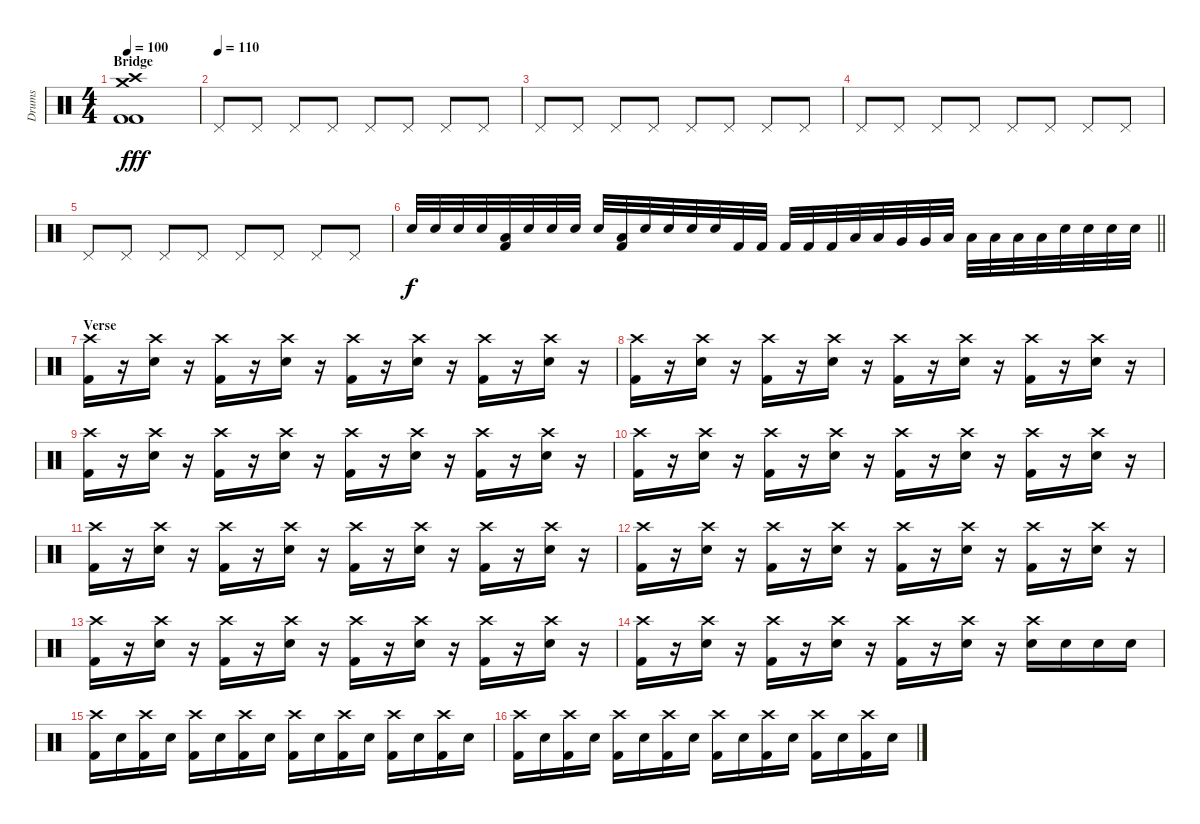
\track ("Drums" "Drums") {instrument percussion}
\staff {score}
\articulation defaults
\ts (4 4)
\section ("" "Bridge")
\tempo 100
\clef neutral
\ks c
("Crash high (hit)" "Crash medium (hit)" "Kick (hit) 2" "Kick (hit) 2").1{dy fff} |
\tempo (110)
"Pedal Hi-Hat (hit)".8 "Pedal Hi-Hat (hit)".8 "Pedal Hi-Hat (hit)".8 "Pedal Hi-Hat (hit)".8 "Pedal Hi-Hat (hit)".8 "Pedal Hi-Hat (hit)".8 "Pedal Hi-Hat (hit)".8 "Pedal Hi-Hat (hit)".8 |
"Pedal Hi-Hat (hit)".8 "Pedal Hi-Hat (hit)".8 "Pedal Hi-Hat (hit)".8 "Pedal Hi-Hat (hit)".8 "Pedal Hi-Hat (hit)".8 "Pedal Hi-Hat (hit)".8 "Pedal Hi-Hat (hit)".8 "Pedal Hi-Hat (hit)".8 |
"Pedal Hi-Hat (hit)".8 "Pedal Hi-Hat (hit)".8 "Pedal Hi-Hat (hit)".8 "Pedal Hi-Hat (hit)".8 "Pedal Hi-Hat (hit)".8 "Pedal Hi-Hat (hit)".8 "Pedal Hi-Hat (hit)".8 "Pedal Hi-Hat (hit)".8 |
"Pedal Hi-Hat (hit)".8 "Pedal Hi-Hat (hit)".8 "Pedal Hi-Hat (hit)".8 "Pedal Hi-Hat (hit)".8 "Pedal Hi-Hat (hit)".8 "Pedal Hi-Hat (hit)".8 "Pedal Hi-Hat (hit)".8 "Pedal Hi-Hat (hit)".8 |
\barLineRight lightlight "Electric Snare (hit)".32{dy f} "Electric Snare (hit)".32 "Electric Snare (hit)".32 "Electric Snare (hit)".32
("Low Tom (hit)" "Kick (hit) 2").32 "Electric Snare (hit)".32 "Electric Snare (hit)".32 "Electric Snare (hit)".32 "Electric Snare (hit)".32 ("Low Tom (hit)" "Kick (hit) 2").32 "Electric Snare (hit)".32 "Electric Snare (hit)".32 "Electric Snare (hit)".32 "Electric Snare (hit)".32 "Kick (hit) 2".32 "Kick (hit) 2".32 "Kick (hit) 2".32 "Kick (hit) 2".32 "Kick (hit) 2".32 "Low Tom (hit)".32 "Low Tom (hit)".32 "Very Low Tom (hit)".32 "Very Low Tom (hit)".32 "Low Floor Tom (hit)".32 "Low Floor Tom (hit)".32 "Low Floor Tom (hit)".32 "Low Floor Tom (hit)".32 "Low Floor Tom (hit)".32 "Electric Snare (hit)".32 "Electric Snare (hit)".32 "Electric Snare (hit)".32 "Electric Snare (hit)".32 |
\section ("" "Verse")
("Crash high (hit)" "Kick (hit) 2").16 r.16 ("Crash high (hit)" "Electric Snare (hit)").16 r.16 ("Crash high (hit)" "Kick (hit) 2").16 r.16 ("Crash high (hit)" "Electric Snare (hit)").16 r.16 ("Crash high (hit)" "Kick (hit) 2").16 r.16 ("Crash high (hit)" "Electric Snare (hit)").16 r.16 ("Crash high (hit)" "Kick (hit) 2").16 r.16 ("Crash high (hit)" "Electric Snare (hit)").16 r.16 |
("Crash high (hit)" "Kick (hit) 2").16 r.16 ("Crash high (hit)" "Electric Snare (hit)").16 r.16 ("Crash high (hit)" "Kick (hit) 2").16 r.16 ("Crash high (hit)" "Electric Snare (hit)").16 r.16 ("Crash high (hit)" "Kick (hit) 2").16 r.16 ("Crash high (hit)" "Electric Snare (hit)").16 r.16 ("Crash high (hit)" "Kick (hit) 2").16 r.16 ("Crash high (hit)" "Electric Snare (hit)").16 r.16 |
("Crash high (hit)" "Kick (hit) 2").16 r.16 ("Crash high (hit)" "Electric Snare (hit)").16 r.16 ("Crash high (hit)" "Kick (hit) 2").16 r.16 ("Crash high (hit)" "Electric Snare (hit)").16 r.16 ("Crash high (hit)" "Kick (hit) 2").16 r.16 ("Crash high (hit)" "Electric Snare (hit)").16 r.16 ("Crash high (hit)" "Kick (hit) 2").16 r.16 ("Crash high (hit)" "Electric Snare (hit)").16 r.16 |
("Crash high (hit)" "Kick (hit) 2").16 r.16 ("Crash high (hit)" "Electric Snare (hit)").16 r.16 ("Crash high (hit)" "Kick (hit) 2").16 r.16 ("Crash high (hit)" "Electric Snare (hit)").16 r.16 ("Crash high (hit)" "Kick (hit) 2").16 r.16 ("Crash high (hit)" "Electric Snare (hit)").16 r.16 ("Crash high (hit)" "Kick (hit) 2").16 r.16 ("Crash high (hit)" "Electric Snare (hit)").16 r.16 |
("Crash high (hit)" "Kick (hit) 2").16 r.16 ("Crash high (hit)" "Electric Snare (hit)").16 r.16 ("Crash high (hit)" "Kick (hit) 2").16 r.16 ("Crash high (hit)" "Electric Snare (hit)").16 r.16 ("Crash high (hit)" "Kick (hit) 2").16 r.16 ("Crash high (hit)" "Electric Snare (hit)").16 r.16 ("Crash high (hit)" "Kick (hit) 2").16 r.16 ("Crash high (hit)" "Electric Snare (hit)").16 r.16 |
("Crash high (hit)" "Kick (hit) 2").16 r.16 ("Crash high (hit)" "Electric Snare (hit)").16 r.16 ("Crash high (hit)" "Kick (hit) 2").16 r.16 ("Crash high (hit)" "Electric Snare (hit)").16 r.16 ("Crash high (hit)" "Kick (hit) 2").16 r.16 ("Crash high (hit)" "Electric Snare (hit)").16 r.16 ("Crash high (hit)" "Kick (hit) 2").16 r.16 ("Crash high (hit)" "Electric Snare (hit)").16 r.16 |
("Crash high (hit)" "Kick (hit) 2").16 r.16 ("Crash high (hit)" "Electric Snare (hit)").16 r.16 ("Crash high (hit)" "Kick (hit) 2").16 r.16 ("Crash high (hit)" "Electric Snare (hit)").16 r.16 ("Crash high (hit)" "Kick (hit) 2").16 r.16 ("Crash high (hit)" "Electric Snare (hit)").16 r.16 ("Crash high (hit)" "Kick (hit) 2").16 r.16 ("Crash high (hit)" "Electric Snare (hit)").16 r.16 |
("Crash high (hit)" "Kick (hit) 2").16 r.16 ("Crash high (hit)" "Electric Snare (hit)").16 r.16 ("Crash high (hit)" "Kick (hit) 2").16 r.16 ("Crash high (hit)" "Electric Snare (hit)").16 r.16 ("Crash high (hit)" "Kick (hit) 2").16 r.16 ("Crash high (hit)" "Electric Snare (hit)").16 r.16 ("Crash high (hit)" "Electric Snare (hit)").16 "Electric Snare (hit)".16 "Electric Snare (hit)".16 "Electric Snare (hit)".16 |
("Crash high (hit)" "Kick (hit) 2").16 "Electric Snare (hit)".16 ("Crash high (hit)" "Kick (hit) 2").16 "Electric Snare (hit)".16 ("Crash high (hit)" "Kick (hit) 2").16 "Electric Snare (hit)".16 ("Crash high (hit)" "Kick (hit) 2").16 "Electric Snare (hit)".16 ("Crash high (hit)" "Kick (hit) 2").16 "Electric Snare (hit)".16 ("Crash high (hit)" "Kick (hit) 2").16 "Electric Snare (hit)".16 ("Crash high (hit)" "Kick (hit) 2").16 "Electric Snare (hit)".16 ("Crash high (hit)" "Kick (hit) 2").16 "Electric Snare (hit)".16 |
("Crash high (hit)" "Kick (hit) 2").16 "Electric Snare (hit)".16 ("Crash high (hit)" "Kick (hit) 2").16 "Electric Snare (hit)".16 ("Crash high (hit)" "Kick (hit) 2").16 "Electric Snare (hit)".16 ("Crash high (hit)" "Kick (hit) 2").16 "Electric Snare (hit)".16 ("Crash high (hit)" "Kick (hit) 2").16 "Electric Snare (hit)".16 ("Crash high (hit)" "Kick (hit) 2").16 "Electric Snare (hit)".16 ("Crash high (hit)" "Kick (hit) 2").16 "Electric Snare (hit)".16 ("Crash high (hit)" "Kick (hit) 2").16 "Electric Snare (hit)".16
